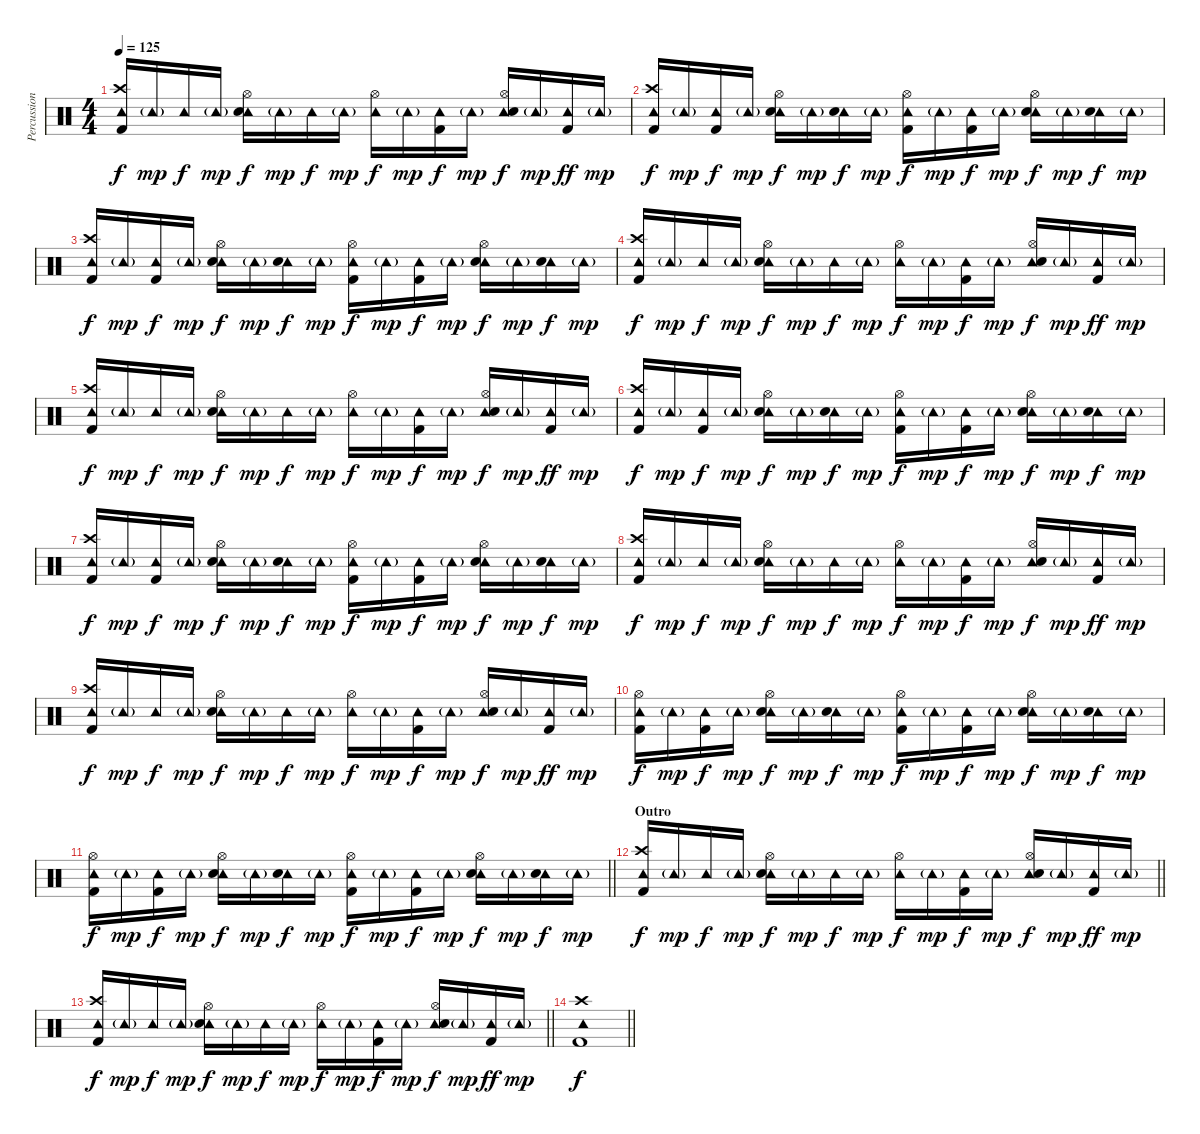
\track ("Percussion" "Percussion") {instrument percussion}
\staff {score}
\articulation defaults
\ts (4 4)
\tempo 125
\clef neutral
\ks c
("Tambourine (hit)" "Crash high (hit)" "Kick (hit) 2").16{dy f} "Tambourine (hit)"{g}.16{dy mp} "Tambourine (hit)".16{dy f} "Tambourine (hit)"{g}.16{dy mp} ("Tambourine (hit)" "Hi-Hat (open)" "Electric Snare (hit)").16{dy f} "Tambourine (hit)"{g}.16{dy mp} "Tambourine (hit)".16{dy f} "Tambourine (hit)"{g}.16{dy mp} ("Tambourine (hit)" "Hi-Hat (open)").16{dy f} "Tambourine (hit)"{g}.16{dy mp} ("Tambourine (hit)" "Kick (hit) 2").16{dy f} "Tambourine (hit)"{g}.16{dy mp} ("Tambourine (hit)" "Hi-Hat (open)" "Electric Snare (hit)").16{dy f} "Tambourine (hit)"{g}.16{dy mp} ("Tambourine (hit)" "Kick (hit) 2").16{dy ff} "Tambourine (hit)"{g}.16{dy mp} |
("Tambourine (hit)" "Crash high (hit)" "Kick (hit) 2").16{dy f} "Tambourine (hit)"{g}.16{dy mp} ("Tambourine (hit)" "Kick (hit) 2").16{dy f} "Tambourine (hit)"{g}.16{dy mp} ("Tambourine (hit)" "Hi-Hat (open)" "Electric Snare (hit)").16{dy f} "Tambourine (hit)"{g}.16{dy mp} ("Tambourine (hit)" "Electric Snare (hit)").16{dy f} "Tambourine (hit)"{g}.16{dy mp} ("Tambourine (hit)" "Hi-Hat (open)" "Kick (hit) 2").16{dy f} "Tambourine (hit)"{g}.16{dy mp} ("Tambourine (hit)" "Kick (hit) 2").16{dy f} "Tambourine (hit)"{g}.16{dy mp} ("Tambourine (hit)" "Hi-Hat (open)" "Electric Snare (hit)").16{dy f} "Tambourine (hit)"{g}.16{dy mp} ("Tambourine (hit)" "Electric Snare (hit)").16{dy f} "Tambourine (hit)"{g}.16{dy mp} |
("Tambourine (hit)" "Crash high (hit)" "Kick (hit) 2").16{dy f} "Tambourine (hit)"{g}.16{dy mp} ("Tambourine (hit)" "Kick (hit) 2").16{dy f} "Tambourine (hit)"{g}.16{dy mp} ("Tambourine (hit)" "Hi-Hat (open)" "Electric Snare (hit)").16{dy f} "Tambourine (hit)"{g}.16{dy mp} ("Tambourine (hit)" "Electric Snare (hit)").16{dy f} "Tambourine (hit)"{g}.16{dy mp} ("Tambourine (hit)" "Hi-Hat (open)" "Kick (hit) 2").16{dy f} "Tambourine (hit)"{g}.16{dy mp} ("Tambourine (hit)" "Kick (hit) 2").16{dy f} "Tambourine (hit)"{g}.16{dy mp} ("Tambourine (hit)" "Hi-Hat (open)" "Electric Snare (hit)").16{dy f} "Tambourine (hit)"{g}.16{dy mp} ("Tambourine (hit)" "Electric Snare (hit)").16{dy f} "Tambourine (hit)"{g}.16{dy mp} |
("Tambourine (hit)" "Crash high (hit)" "Kick (hit) 2").16{dy f} "Tambourine (hit)"{g}.16{dy mp} "Tambourine (hit)".16{dy f} "Tambourine (hit)"{g}.16{dy mp} ("Tambourine (hit)" "Hi-Hat (open)" "Electric Snare (hit)").16{dy f} "Tambourine (hit)"{g}.16{dy mp} "Tambourine (hit)".16{dy f} "Tambourine (hit)"{g}.16{dy mp} ("Tambourine (hit)" "Hi-Hat (open)").16{dy f} "Tambourine (hit)"{g}.16{dy mp} ("Tambourine (hit)" "Kick (hit) 2").16{dy f} "Tambourine (hit)"{g}.16{dy mp} ("Tambourine (hit)" "Hi-Hat (open)" "Electric Snare (hit)").16{dy f} "Tambourine (hit)"{g}.16{dy mp} ("Tambourine (hit)" "Kick (hit) 2").16{dy ff} "Tambourine (hit)"{g}.16{dy mp} |
("Tambourine (hit)" "Crash high (hit)" "Kick (hit) 2").16{dy f} "Tambourine (hit)"{g}.16{dy mp} "Tambourine (hit)".16{dy f} "Tambourine (hit)"{g}.16{dy mp} ("Tambourine (hit)" "Hi-Hat (open)" "Electric Snare (hit)").16{dy f} "Tambourine (hit)"{g}.16{dy mp} "Tambourine (hit)".16{dy f} "Tambourine (hit)"{g}.16{dy mp} ("Tambourine (hit)" "Hi-Hat (open)").16{dy f} "Tambourine (hit)"{g}.16{dy mp} ("Tambourine (hit)" "Kick (hit) 2").16{dy f} "Tambourine (hit)"{g}.16{dy mp} ("Tambourine (hit)" "Hi-Hat (open)" "Electric Snare (hit)").16{dy f} "Tambourine (hit)"{g}.16{dy mp} ("Tambourine (hit)" "Kick (hit) 2").16{dy ff} "Tambourine (hit)"{g}.16{dy mp} |
("Tambourine (hit)" "Crash high (hit)" "Kick (hit) 2").16{dy f} "Tambourine (hit)"{g}.16{dy mp} ("Tambourine (hit)" "Kick (hit) 2").16{dy f} "Tambourine (hit)"{g}.16{dy mp} ("Tambourine (hit)" "Hi-Hat (open)" "Electric Snare (hit)").16{dy f} "Tambourine (hit)"{g}.16{dy mp} ("Tambourine (hit)" "Electric Snare (hit)").16{dy f} "Tambourine (hit)"{g}.16{dy mp} ("Tambourine (hit)" "Hi-Hat (open)" "Kick (hit) 2").16{dy f} "Tambourine (hit)"{g}.16{dy mp} ("Tambourine (hit)" "Kick (hit) 2").16{dy f} "Tambourine (hit)"{g}.16{dy mp} ("Tambourine (hit)" "Hi-Hat (open)" "Electric Snare (hit)").16{dy f} "Tambourine (hit)"{g}.16{dy mp} ("Tambourine (hit)" "Electric Snare (hit)").16{dy f} "Tambourine (hit)"{g}.16{dy mp} |
("Tambourine (hit)" "Crash high (hit)" "Kick (hit) 2").16{dy f} "Tambourine (hit)"{g}.16{dy mp} ("Tambourine (hit)" "Kick (hit) 2").16{dy f} "Tambourine (hit)"{g}.16{dy mp} ("Tambourine (hit)" "Hi-Hat (open)" "Electric Snare (hit)").16{dy f} "Tambourine (hit)"{g}.16{dy mp} ("Tambourine (hit)" "Electric Snare (hit)").16{dy f} "Tambourine (hit)"{g}.16{dy mp} ("Tambourine (hit)" "Hi-Hat (open)" "Kick (hit) 2").16{dy f} "Tambourine (hit)"{g}.16{dy mp} ("Tambourine (hit)" "Kick (hit) 2").16{dy f} "Tambourine (hit)"{g}.16{dy mp} ("Tambourine (hit)" "Hi-Hat (open)" "Electric Snare (hit)").16{dy f} "Tambourine (hit)"{g}.16{dy mp} ("Tambourine (hit)" "Electric Snare (hit)").16{dy f} "Tambourine (hit)"{g}.16{dy mp} |
("Tambourine (hit)" "Crash high (hit)" "Kick (hit) 2").16{dy f} "Tambourine (hit)"{g}.16{dy mp} "Tambourine (hit)".16{dy f} "Tambourine (hit)"{g}.16{dy mp} ("Tambourine (hit)" "Hi-Hat (open)" "Electric Snare (hit)").16{dy f} "Tambourine (hit)"{g}.16{dy mp} "Tambourine (hit)".16{dy f} "Tambourine (hit)"{g}.16{dy mp} ("Tambourine (hit)" "Hi-Hat (open)").16{dy f} "Tambourine (hit)"{g}.16{dy mp} ("Tambourine (hit)" "Kick (hit) 2").16{dy f} "Tambourine (hit)"{g}.16{dy mp} ("Tambourine (hit)" "Hi-Hat (open)" "Electric Snare (hit)").16{dy f} "Tambourine (hit)"{g}.16{dy mp} ("Tambourine (hit)" "Kick (hit) 2").16{dy ff} "Tambourine (hit)"{g}.16{dy mp} |
("Tambourine (hit)" "Crash high (hit)" "Kick (hit) 2").16{dy f} "Tambourine (hit)"{g}.16{dy mp} "Tambourine (hit)".16{dy f} "Tambourine (hit)"{g}.16{dy mp} ("Tambourine (hit)" "Hi-Hat (open)" "Electric Snare (hit)").16{dy f} "Tambourine (hit)"{g}.16{dy mp} "Tambourine (hit)".16{dy f} "Tambourine (hit)"{g}.16{dy mp} ("Tambourine (hit)" "Hi-Hat (open)").16{dy f} "Tambourine (hit)"{g}.16{dy mp} ("Tambourine (hit)" "Kick (hit) 2").16{dy f} "Tambourine (hit)"{g}.16{dy mp} ("Tambourine (hit)" "Hi-Hat (open)" "Electric Snare (hit)").16{dy f} "Tambourine (hit)"{g}.16{dy mp} ("Tambourine (hit)" "Kick (hit) 2").16{dy ff} "Tambourine (hit)"{g}.16{dy mp} |
("Tambourine (hit)" "Hi-Hat (open)" "Kick (hit) 2").16{dy f} "Tambourine (hit)"{g}.16{dy mp} ("Tambourine (hit)" "Kick (hit) 2").16{dy f} "Tambourine (hit)"{g}.16{dy mp} ("Tambourine (hit)" "Hi-Hat (open)" "Electric Snare (hit)").16{dy f} "Tambourine (hit)"{g}.16{dy mp} ("Tambourine (hit)" "Electric Snare (hit)").16{dy f} "Tambourine (hit)"{g}.16{dy mp} ("Tambourine (hit)" "Hi-Hat (open)" "Kick (hit) 2").16{dy f} "Tambourine (hit)"{g}.16{dy mp} ("Tambourine (hit)" "Kick (hit) 2").16{dy f} "Tambourine (hit)"{g}.16{dy mp} ("Tambourine (hit)" "Hi-Hat (open)" "Electric Snare (hit)").16{dy f} "Tambourine (hit)"{g}.16{dy mp} ("Tambourine (hit)" "Electric Snare (hit)").16{dy f} "Tambourine (hit)"{g}.16{dy mp} |
\barLineRight lightlight
("Tambourine (hit)" "Hi-Hat (open)" "Kick (hit) 2").16{dy f} "Tambourine (hit)"{g}.16{dy mp} ("Tambourine (hit)" "Kick (hit) 2").16{dy f} "Tambourine (hit)"{g}.16{dy mp} ("Tambourine (hit)" "Hi-Hat (open)" "Electric Snare (hit)").16{dy f} "Tambourine (hit)"{g}.16{dy mp} ("Tambourine (hit)" "Electric Snare (hit)").16{dy f} "Tambourine (hit)"{g}.16{dy mp} ("Tambourine (hit)" "Hi-Hat (open)" "Kick (hit) 2").16{dy f} "Tambourine (hit)"{g}.16{dy mp} ("Tambourine (hit)" "Kick (hit) 2").16{dy f} "Tambourine (hit)"{g}.16{dy mp} ("Tambourine (hit)" "Hi-Hat (open)" "Electric Snare (hit)").16{dy f} "Tambourine (hit)"{g}.16{dy mp} ("Tambourine (hit)" "Electric Snare (hit)").16{dy f} "Tambourine (hit)"{g}.16{dy mp} |
\section ("" "Outro")
\barLineRight lightlight
("Tambourine (hit)" "Crash high (hit)" "Kick (hit) 2").16{dy f} "Tambourine (hit)"{g}.16{dy mp} "Tambourine (hit)".16{dy f} "Tambourine (hit)"{g}.16{dy mp} ("Tambourine (hit)" "Hi-Hat (open)" "Electric Snare (hit)").16{dy f} "Tambourine (hit)"{g}.16{dy mp} "Tambourine (hit)".16{dy f} "Tambourine (hit)"{g}.16{dy mp} ("Tambourine (hit)" "Hi-Hat (open)").16{dy f} "Tambourine (hit)"{g}.16{dy mp} ("Tambourine (hit)" "Kick (hit) 2").16{dy f} "Tambourine (hit)"{g}.16{dy mp} ("Tambourine (hit)" "Hi-Hat (open)" "Electric Snare (hit)").16{dy f} "Tambourine (hit)"{g}.16{dy mp} ("Tambourine (hit)" "Kick (hit) 2").16{dy ff} "Tambourine (hit)"{g}.16{dy mp} |
\barLineRight lightlight
("Tambourine (hit)" "Crash high (hit)" "Kick (hit) 2").16{dy f} "Tambourine (hit)"{g}.16{dy mp} "Tambourine (hit)".16{dy f} "Tambourine (hit)"{g}.16{dy mp} ("Tambourine (hit)" "Hi-Hat (open)" "Electric Snare (hit)").16{dy f} "Tambourine (hit)"{g}.16{dy mp} "Tambourine (hit)".16{dy f} "Tambourine (hit)"{g}.16{dy mp} ("Tambourine (hit)" "Hi-Hat (open)").16{dy f} "Tambourine (hit)"{g}.16{dy mp} ("Tambourine (hit)" "Kick (hit) 2").16{dy f} "Tambourine (hit)"{g}.16{dy mp} ("Tambourine (hit)" "Hi-Hat (open)" "Electric Snare (hit)").16{dy f} "Tambourine (hit)"{g}.16{dy mp} ("Tambourine (hit)" "Kick (hit) 2").16{dy ff} "Tambourine (hit)"{g}.16{dy mp} |
\barLineRight lightlight
("Tambourine (hit)" "Crash high (hit)" "Kick (hit) 2").1{dy f}
